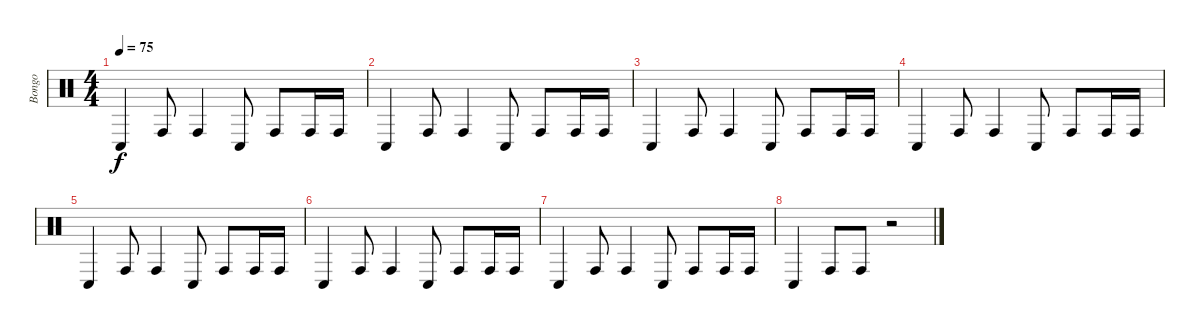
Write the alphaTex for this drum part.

\track ("Bongo" "Bongo") {instrument percussion}
\staff {score}
\articulation defaults
\ts (4 4)
\tempo 75
\clef neutral
\ks c "Conga low (hit)".4{dy f} "Conga high (hit)".8 "Conga high (hit)".4 "Conga low (hit)".8 "Conga high (hit)".8 "Conga high (hit)".16 "Conga high (hit)".16
|
"Conga low (hit)".4 "Conga high (hit)".8 "Conga high (hit)".4 "Conga low (hit)".8 "Conga high (hit)".8 "Conga high (hit)".16 "Conga high (hit)".16 |
"Conga low (hit)".4 "Conga high (hit)".8 "Conga high (hit)".4 "Conga low (hit)".8 "Conga high (hit)".8 "Conga high (hit)".16 "Conga high (hit)".16 |
"Conga low (hit)".4 "Conga high (hit)".8 "Conga high (hit)".4 "Conga low (hit)".8 "Conga high (hit)".8 "Conga high (hit)".16 "Conga high (hit)".16 |
"Conga low (hit)".4 "Conga high (hit)".8 "Conga high (hit)".4 "Conga low (hit)".8 "Conga high (hit)".8 "Conga high (hit)".16 "Conga high (hit)".16 |
"Conga low (hit)".4 "Conga high (hit)".8 "Conga high (hit)".4 "Conga low (hit)".8 "Conga high (hit)".8 "Conga high (hit)".16 "Conga high (hit)".16 |
"Conga low (hit)".4 "Conga high (hit)".8 "Conga high (hit)".4 "Conga low (hit)".8 "Conga high (hit)".8 "Conga high (hit)".16 "Conga high (hit)".16 |
"Conga low (hit)".4 "Conga high (hit)".8 "Conga high (hit)".8 r.2
